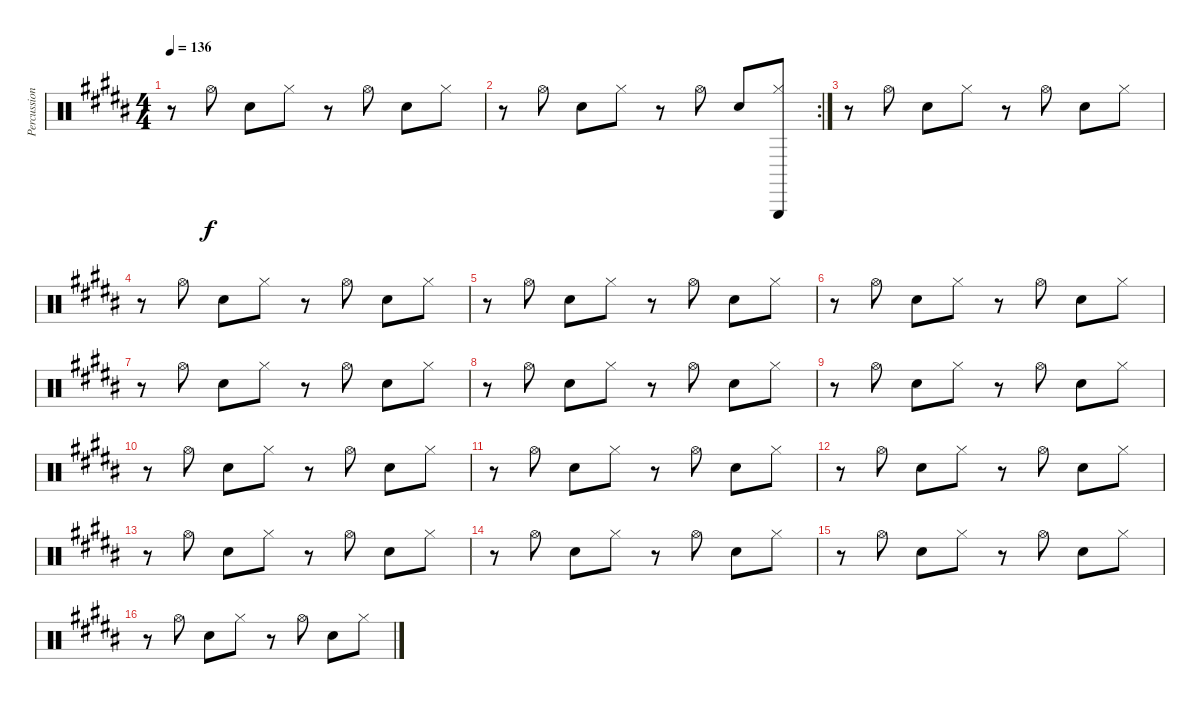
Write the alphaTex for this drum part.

\track ("Percussion" "Percussion") {instrument percussion}
\staff {score}
\articulation defaults
\ts (4 4)
\tempo 136
\clef neutral
\ks g#minor
r.8{dy f} "Hi-Hat (open)".8 "Snare (hit) 2".8 "Hi-Hat (closed)".8 r.8 "Hi-Hat (open)".8 "Snare (hit) 2".8 "Hi-Hat (closed)".8 |
\rc 2
r.8 "Hi-Hat (open)".8 "Snare (hit) 2".8 "Hi-Hat (closed)".8 r.8 "Hi-Hat (open)".8 "Snare (hit) 2".8 ("Hi-Hat (closed)" "Triangle (hit)").8 |
r.8 "Hi-Hat (open)".8 "Snare (hit) 2".8 "Hi-Hat (closed)".8 r.8 "Hi-Hat (open)".8 "Snare (hit) 2".8 "Hi-Hat (closed)".8 |
r.8 "Hi-Hat (open)".8 "Snare (hit) 2".8 "Hi-Hat (closed)".8 r.8 "Hi-Hat (open)".8 "Snare (hit) 2".8 "Hi-Hat (closed)".8 |
r.8 "Hi-Hat (open)".8 "Snare (hit) 2".8 "Hi-Hat (closed)".8 r.8 "Hi-Hat (open)".8 "Snare (hit) 2".8 "Hi-Hat (closed)".8 |
r.8 "Hi-Hat (open)".8 "Snare (hit) 2".8 "Hi-Hat (closed)".8 r.8 "Hi-Hat (open)".8 "Snare (hit) 2".8 "Hi-Hat (closed)".8 |
r.8 "Hi-Hat (open)".8 "Snare (hit) 2".8 "Hi-Hat (closed)".8 r.8 "Hi-Hat (open)".8 "Snare (hit) 2".8 "Hi-Hat (closed)".8 |
r.8 "Hi-Hat (open)".8 "Snare (hit) 2".8 "Hi-Hat (closed)".8 r.8 "Hi-Hat (open)".8 "Snare (hit) 2".8 "Hi-Hat (closed)".8 |
r.8 "Hi-Hat (open)".8 "Snare (hit) 2".8 "Hi-Hat (closed)".8 r.8 "Hi-Hat (open)".8 "Snare (hit) 2".8 "Hi-Hat (closed)".8 |
r.8 "Hi-Hat (open)".8 "Snare (hit) 2".8 "Hi-Hat (closed)".8 r.8 "Hi-Hat (open)".8 "Snare (hit) 2".8 "Hi-Hat (closed)".8 |
r.8 "Hi-Hat (open)".8 "Snare (hit) 2".8 "Hi-Hat (closed)".8 r.8 "Hi-Hat (open)".8 "Snare (hit) 2".8 "Hi-Hat (closed)".8 |
r.8 "Hi-Hat (open)".8 "Snare (hit) 2".8 "Hi-Hat (closed)".8 r.8 "Hi-Hat (open)".8 "Snare (hit) 2".8 "Hi-Hat (closed)".8 |
r.8 "Hi-Hat (open)".8 "Snare (hit) 2".8 "Hi-Hat (closed)".8 r.8 "Hi-Hat (open)".8 "Snare (hit) 2".8 "Hi-Hat (closed)".8 |
r.8 "Hi-Hat (open)".8 "Snare (hit) 2".8 "Hi-Hat (closed)".8 r.8 "Hi-Hat (open)".8 "Snare (hit) 2".8 "Hi-Hat (closed)".8 |
r.8 "Hi-Hat (open)".8 "Snare (hit) 2".8 "Hi-Hat (closed)".8 r.8 "Hi-Hat (open)".8 "Snare (hit) 2".8 "Hi-Hat (closed)".8 |
r.8 "Hi-Hat (open)".8 "Snare (hit) 2".8 "Hi-Hat (closed)".8 r.8 "Hi-Hat (open)".8 "Snare (hit) 2".8 "Hi-Hat (closed)".8
